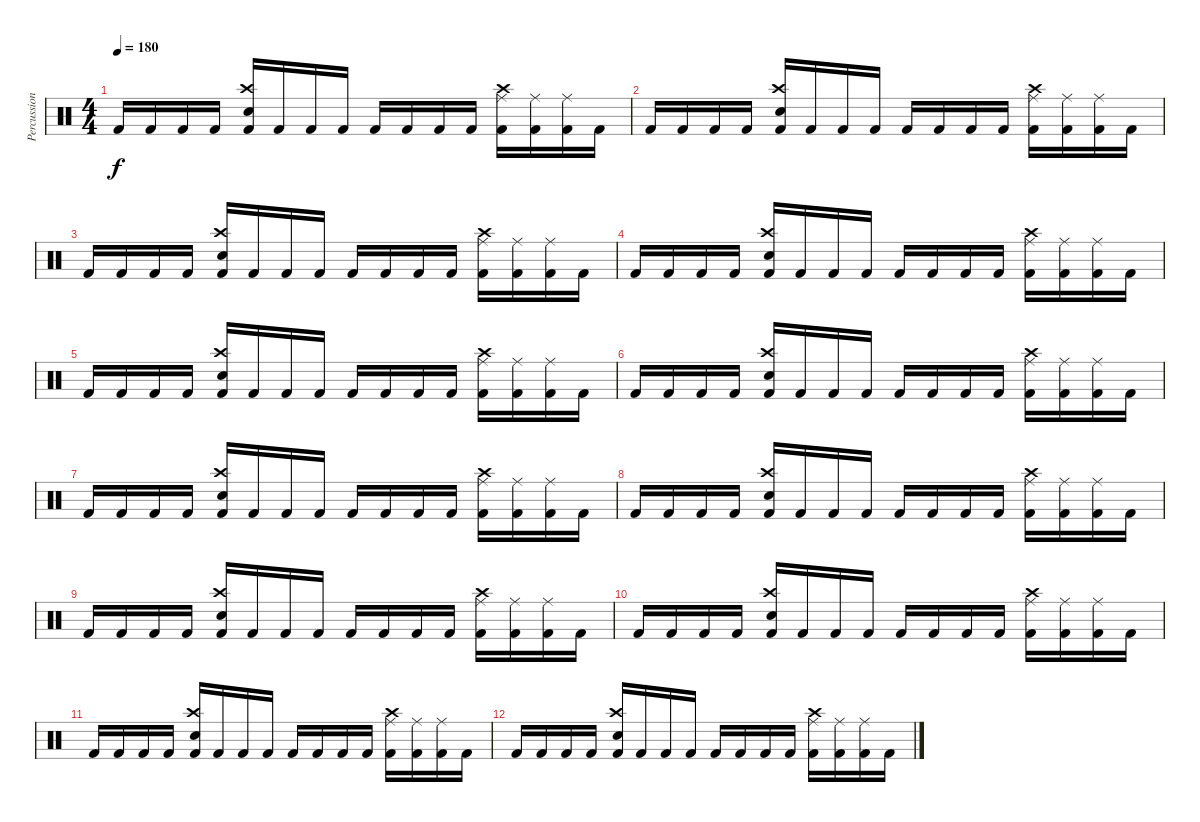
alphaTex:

\track ("Percussions" "Percussion") {instrument percussion}
\staff {score}
\articulation defaults
\ts (4 4)
\tempo 180
\clef neutral
\ks c "Kick (hit) 2".16{dy f} "Kick (hit) 2".16 "Kick (hit) 2".16 "Kick (hit) 2".16
("Crash high (hit)" "Snare (hit) 2" "Kick (hit) 2").16 "Kick (hit) 2".16 "Kick (hit) 2".16 "Kick (hit) 2".16 "Kick (hit) 2".16 "Kick (hit) 2".16 "Kick (hit) 2".16 "Kick (hit) 2".16 ("Crash high (hit)" "Ride (middle)" "Kick (hit) 2").16 ("Ride (middle)" "Kick (hit) 2").16 ("Ride (middle)" "Kick (hit) 2").16 "Kick (hit) 2".16 |
"Kick (hit) 2".16 "Kick (hit) 2".16 "Kick (hit) 2".16 "Kick (hit) 2".16 ("Crash high (hit)" "Snare (hit) 2" "Kick (hit) 2").16 "Kick (hit) 2".16 "Kick (hit) 2".16 "Kick (hit) 2".16 "Kick (hit) 2".16 "Kick (hit) 2".16 "Kick (hit) 2".16 "Kick (hit) 2".16 ("Crash high (hit)" "Ride (middle)" "Kick (hit) 2").16 ("Ride (middle)" "Kick (hit) 2").16 ("Ride (middle)" "Kick (hit) 2").16 "Kick (hit) 2".16 |
"Kick (hit) 2".16 "Kick (hit) 2".16 "Kick (hit) 2".16 "Kick (hit) 2".16 ("Crash high (hit)" "Snare (hit) 2" "Kick (hit) 2").16 "Kick (hit) 2".16 "Kick (hit) 2".16 "Kick (hit) 2".16 "Kick (hit) 2".16 "Kick (hit) 2".16 "Kick (hit) 2".16 "Kick (hit) 2".16 ("Crash high (hit)" "Ride (middle)" "Kick (hit) 2").16 ("Ride (middle)" "Kick (hit) 2").16 ("Ride (middle)" "Kick (hit) 2").16 "Kick (hit) 2".16 |
"Kick (hit) 2".16 "Kick (hit) 2".16 "Kick (hit) 2".16 "Kick (hit) 2".16 ("Crash high (hit)" "Snare (hit) 2" "Kick (hit) 2").16 "Kick (hit) 2".16 "Kick (hit) 2".16 "Kick (hit) 2".16 "Kick (hit) 2".16 "Kick (hit) 2".16 "Kick (hit) 2".16 "Kick (hit) 2".16 ("Crash high (hit)" "Ride (middle)" "Kick (hit) 2").16 ("Ride (middle)" "Kick (hit) 2").16 ("Ride (middle)" "Kick (hit) 2").16 "Kick (hit) 2".16 |
"Kick (hit) 2".16 "Kick (hit) 2".16 "Kick (hit) 2".16 "Kick (hit) 2".16 ("Crash high (hit)" "Snare (hit) 2" "Kick (hit) 2").16 "Kick (hit) 2".16 "Kick (hit) 2".16 "Kick (hit) 2".16 "Kick (hit) 2".16 "Kick (hit) 2".16 "Kick (hit) 2".16 "Kick (hit) 2".16 ("Crash high (hit)" "Ride (middle)" "Kick (hit) 2").16 ("Ride (middle)" "Kick (hit) 2").16 ("Ride (middle)" "Kick (hit) 2").16 "Kick (hit) 2".16 |
"Kick (hit) 2".16 "Kick (hit) 2".16 "Kick (hit) 2".16 "Kick (hit) 2".16 ("Crash high (hit)" "Snare (hit) 2" "Kick (hit) 2").16 "Kick (hit) 2".16 "Kick (hit) 2".16 "Kick (hit) 2".16 "Kick (hit) 2".16 "Kick (hit) 2".16 "Kick (hit) 2".16 "Kick (hit) 2".16 ("Crash high (hit)" "Ride (middle)" "Kick (hit) 2").16 ("Ride (middle)" "Kick (hit) 2").16 ("Ride (middle)" "Kick (hit) 2").16 "Kick (hit) 2".16 |
"Kick (hit) 2".16 "Kick (hit) 2".16 "Kick (hit) 2".16 "Kick (hit) 2".16 ("Crash high (hit)" "Snare (hit) 2" "Kick (hit) 2").16 "Kick (hit) 2".16 "Kick (hit) 2".16 "Kick (hit) 2".16 "Kick (hit) 2".16 "Kick (hit) 2".16 "Kick (hit) 2".16 "Kick (hit) 2".16 ("Crash high (hit)" "Ride (middle)" "Kick (hit) 2").16 ("Ride (middle)" "Kick (hit) 2").16 ("Ride (middle)" "Kick (hit) 2").16 "Kick (hit) 2".16 |
"Kick (hit) 2".16 "Kick (hit) 2".16 "Kick (hit) 2".16 "Kick (hit) 2".16 ("Crash high (hit)" "Snare (hit) 2" "Kick (hit) 2").16 "Kick (hit) 2".16 "Kick (hit) 2".16 "Kick (hit) 2".16 "Kick (hit) 2".16 "Kick (hit) 2".16 "Kick (hit) 2".16 "Kick (hit) 2".16 ("Crash high (hit)" "Ride (middle)" "Kick (hit) 2").16 ("Ride (middle)" "Kick (hit) 2").16 ("Ride (middle)" "Kick (hit) 2").16 "Kick (hit) 2".16 |
"Kick (hit) 2".16 "Kick (hit) 2".16 "Kick (hit) 2".16 "Kick (hit) 2".16 ("Crash high (hit)" "Snare (hit) 2" "Kick (hit) 2").16 "Kick (hit) 2".16 "Kick (hit) 2".16 "Kick (hit) 2".16 "Kick (hit) 2".16 "Kick (hit) 2".16 "Kick (hit) 2".16 "Kick (hit) 2".16 ("Crash high (hit)" "Ride (middle)" "Kick (hit) 2").16 ("Ride (middle)" "Kick (hit) 2").16 ("Ride (middle)" "Kick (hit) 2").16 "Kick (hit) 2".16 |
"Kick (hit) 2".16 "Kick (hit) 2".16 "Kick (hit) 2".16 "Kick (hit) 2".16 ("Crash high (hit)" "Snare (hit) 2" "Kick (hit) 2").16 "Kick (hit) 2".16 "Kick (hit) 2".16 "Kick (hit) 2".16 "Kick (hit) 2".16 "Kick (hit) 2".16 "Kick (hit) 2".16 "Kick (hit) 2".16 ("Crash high (hit)" "Ride (middle)" "Kick (hit) 2").16 ("Ride (middle)" "Kick (hit) 2").16 ("Ride (middle)" "Kick (hit) 2").16 "Kick (hit) 2".16 |
"Kick (hit) 2".16 "Kick (hit) 2".16 "Kick (hit) 2".16 "Kick (hit) 2".16 ("Crash high (hit)" "Snare (hit) 2" "Kick (hit) 2").16 "Kick (hit) 2".16 "Kick (hit) 2".16 "Kick (hit) 2".16 "Kick (hit) 2".16 "Kick (hit) 2".16 "Kick (hit) 2".16 "Kick (hit) 2".16 ("Crash high (hit)" "Ride (middle)" "Kick (hit) 2").16 ("Ride (middle)" "Kick (hit) 2").16 ("Ride (middle)" "Kick (hit) 2").16 "Kick (hit) 2".16 |
"Kick (hit) 2".16 "Kick (hit) 2".16 "Kick (hit) 2".16 "Kick (hit) 2".16 ("Crash high (hit)" "Snare (hit) 2" "Kick (hit) 2").16 "Kick (hit) 2".16 "Kick (hit) 2".16 "Kick (hit) 2".16 "Kick (hit) 2".16 "Kick (hit) 2".16 "Kick (hit) 2".16 "Kick (hit) 2".16 ("Crash high (hit)" "Ride (middle)" "Kick (hit) 2").16 ("Ride (middle)" "Kick (hit) 2").16 ("Ride (middle)" "Kick (hit) 2").16 "Kick (hit) 2".16
